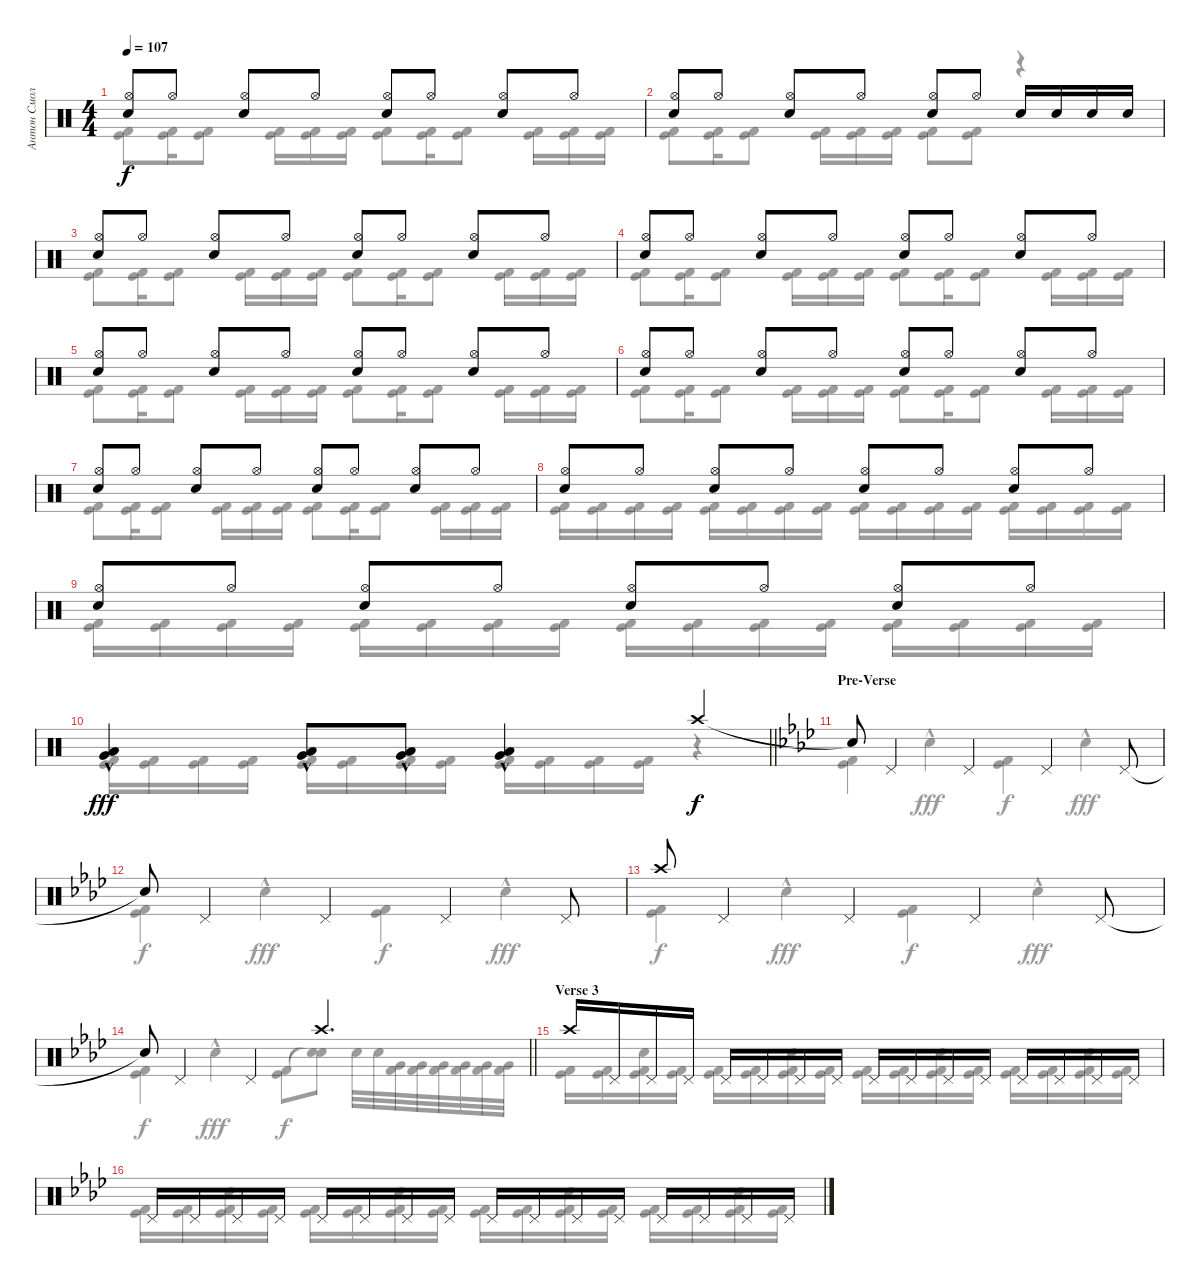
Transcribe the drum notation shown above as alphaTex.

\track ("Антон Смольянин" "Антон Смол") {instrument percussion}
\staff {score}
\articulation defaults
\voice
\ts (4 4)
\tempo 107
\clef neutral
\ks c
("Hi-Hat (open)" "Snare (hit) 2").8{dy f} "Hi-Hat (open)".8 ("Hi-Hat (open)" "Snare (hit) 2").8 "Hi-Hat (open)".8 ("Hi-Hat (open)" "Snare (hit) 2").8 "Hi-Hat (open)".8 ("Hi-Hat (open)" "Snare (hit) 2").8 "Hi-Hat (open)".8 |
("Hi-Hat (open)" "Snare (hit) 2").8 "Hi-Hat (open)".8 ("Hi-Hat (open)" "Snare (hit) 2").8 "Hi-Hat (open)".8 ("Hi-Hat (open)" "Snare (hit) 2").8 "Hi-Hat (open)".8 "Snare (hit) 2".16 "Snare (hit) 2".16 "Snare (hit) 2".16 "Snare (hit) 2".16 |
("Hi-Hat (open)" "Snare (hit) 2").8 "Hi-Hat (open)".8 ("Hi-Hat (open)" "Snare (hit) 2").8 "Hi-Hat (open)".8 ("Hi-Hat (open)" "Snare (hit) 2").8 "Hi-Hat (open)".8 ("Hi-Hat (open)" "Snare (hit) 2").8 "Hi-Hat (open)".8 |
("Hi-Hat (open)" "Snare (hit) 2").8 "Hi-Hat (open)".8 ("Hi-Hat (open)" "Snare (hit) 2").8 "Hi-Hat (open)".8 ("Hi-Hat (open)" "Snare (hit) 2").8 "Hi-Hat (open)".8 ("Hi-Hat (open)" "Snare (hit) 2").8 "Hi-Hat (open)".8 |
("Hi-Hat (open)" "Snare (hit) 2").8 "Hi-Hat (open)".8 ("Hi-Hat (open)" "Snare (hit) 2").8 "Hi-Hat (open)".8 ("Hi-Hat (open)" "Snare (hit) 2").8 "Hi-Hat (open)".8 ("Hi-Hat (open)" "Snare (hit) 2").8 "Hi-Hat (open)".8 |
("Hi-Hat (open)" "Snare (hit) 2").8 "Hi-Hat (open)".8 ("Hi-Hat (open)" "Snare (hit) 2").8 "Hi-Hat (open)".8 ("Hi-Hat (open)" "Snare (hit) 2").8 "Hi-Hat (open)".8 ("Hi-Hat (open)" "Snare (hit) 2").8 "Hi-Hat (open)".8 |
("Hi-Hat (open)" "Snare (hit) 2").8 "Hi-Hat (open)".8 ("Hi-Hat (open)" "Snare (hit) 2").8 "Hi-Hat (open)".8 ("Hi-Hat (open)" "Snare (hit) 2").8 "Hi-Hat (open)".8 ("Hi-Hat (open)" "Snare (hit) 2").8 "Hi-Hat (open)".8 |
("Hi-Hat (open)" "Snare (hit) 2").8 "Hi-Hat (open)".8 ("Hi-Hat (open)" "Snare (hit) 2").8 "Hi-Hat (open)".8 ("Hi-Hat (open)" "Snare (hit) 2").8 "Hi-Hat (open)".8 ("Hi-Hat (open)" "Snare (hit) 2").8 "Hi-Hat (open)".8 |
("Hi-Hat (open)" "Snare (hit) 2").8 "Hi-Hat (open)".8 ("Hi-Hat (open)" "Snare (hit) 2").8 "Hi-Hat (open)".8 ("Hi-Hat (open)" "Snare (hit) 2").8 "Hi-Hat (open)".8 ("Hi-Hat (open)" "Snare (hit) 2").8 "Hi-Hat (open)".8 |
\barLineRight lightlight
("Very Low Tom (hit)"{hac} "Low Tom (hit)"{hac}).4{dy fff} ("Very Low Tom (hit)"{hac} "Low Floor Tom (hit)"{hac}).8 ("Very Low Tom (hit)"{hac} "Low Floor Tom (hit)"{hac}).8 ("Low Tom (hit)"{hac} "Very Low Tom (hit)"{hac}).4 "Crash high (hit)".4{dy f} |
\section ("" "Pre-Verse")
\ks ab "Snare (hit)"{t}.8 "Pedal Hi-Hat (hit)".4 "Pedal Hi-Hat (hit)".4 "Pedal Hi-Hat (hit)".4 "Pedal Hi-Hat (hit)".8
|
"Snare (hit)"{t}.8 "Pedal Hi-Hat (hit)".4 "Pedal Hi-Hat (hit)".4 "Pedal Hi-Hat (hit)".4 "Pedal Hi-Hat (hit)".8 |
"Crash high (hit)".8 "Pedal Hi-Hat (hit)".4 "Pedal Hi-Hat (hit)".4 "Pedal Hi-Hat (hit)".4 "Pedal Hi-Hat (hit)".8 |
\barLineRight lightlight "Snare (hit)"{t}.8 "Pedal Hi-Hat (hit)".4 "Pedal Hi-Hat (hit)".4 "Crash high (hit)".4{d}
|
\section ("" "Verse 3")
"Crash high (hit)".16 "Pedal Hi-Hat (hit)".16 "Pedal Hi-Hat (hit)".16 "Pedal Hi-Hat (hit)".16 "Pedal Hi-Hat (hit)".16 "Pedal Hi-Hat (hit)".16 "Pedal Hi-Hat (hit)".16 "Pedal Hi-Hat (hit)".16 "Pedal Hi-Hat (hit)".16 "Pedal Hi-Hat (hit)".16 "Pedal Hi-Hat (hit)".16 "Pedal Hi-Hat (hit)".16 "Pedal Hi-Hat (hit)".16 "Pedal Hi-Hat (hit)".16 "Pedal Hi-Hat (hit)".16 "Pedal Hi-Hat (hit)".16 |
"Pedal Hi-Hat (hit)".16 "Pedal Hi-Hat (hit)".16 "Pedal Hi-Hat (hit)".16 "Pedal Hi-Hat (hit)".16 "Pedal Hi-Hat (hit)".16 "Pedal Hi-Hat (hit)".16 "Pedal Hi-Hat (hit)".16 "Pedal Hi-Hat (hit)".16 "Pedal Hi-Hat (hit)".16 "Pedal Hi-Hat (hit)".16 "Pedal Hi-Hat (hit)".16 "Pedal Hi-Hat (hit)".16 "Pedal Hi-Hat (hit)".16 "Pedal Hi-Hat (hit)".16 "Pedal Hi-Hat (hit)".16 "Pedal Hi-Hat (hit)".16
\voice
\clef neutral
\ottava regular
\simile none
\ks c
("Kick (hit)" "Kick (hit) 2").8{dy f} ("Kick (hit)" "Kick (hit) 2").16 ("Kick (hit)" "Kick (hit) 2").8 ("Kick (hit)" "Kick (hit) 2").16 ("Kick (hit)" "Kick (hit) 2").16 ("Kick (hit)" "Kick (hit) 2").16 ("Kick (hit)" "Kick (hit) 2").8 ("Kick (hit)" "Kick (hit) 2").16 ("Kick (hit)" "Kick (hit) 2").8 ("Kick (hit)" "Kick (hit) 2").16 ("Kick (hit)" "Kick (hit) 2").16 ("Kick (hit)" "Kick (hit) 2").16 |
("Kick (hit)" "Kick (hit) 2").8 ("Kick (hit)" "Kick (hit) 2").16 ("Kick (hit)" "Kick (hit) 2").8 ("Kick (hit)" "Kick (hit) 2").16 ("Kick (hit)" "Kick (hit) 2").16 ("Kick (hit)" "Kick (hit) 2").16 ("Kick (hit)" "Kick (hit) 2").8 ("Kick (hit)" "Kick (hit) 2").8 r.4 |
("Kick (hit)" "Kick (hit) 2").8 ("Kick (hit)" "Kick (hit) 2").16 ("Kick (hit)" "Kick (hit) 2").8 ("Kick (hit)" "Kick (hit) 2").16 ("Kick (hit)" "Kick (hit) 2").16 ("Kick (hit)" "Kick (hit) 2").16 ("Kick (hit)" "Kick (hit) 2").8 ("Kick (hit)" "Kick (hit) 2").16 ("Kick (hit)" "Kick (hit) 2").8 ("Kick (hit)" "Kick (hit) 2").16 ("Kick (hit)" "Kick (hit) 2").16 ("Kick (hit)" "Kick (hit) 2").16 |
("Kick (hit)" "Kick (hit) 2").8 ("Kick (hit)" "Kick (hit) 2").16 ("Kick (hit)" "Kick (hit) 2").8 ("Kick (hit)" "Kick (hit) 2").16 ("Kick (hit)" "Kick (hit) 2").16 ("Kick (hit)" "Kick (hit) 2").16 ("Kick (hit)" "Kick (hit) 2").8 ("Kick (hit)" "Kick (hit) 2").16 ("Kick (hit)" "Kick (hit) 2").8 ("Kick (hit)" "Kick (hit) 2").16 ("Kick (hit)" "Kick (hit) 2").16 ("Kick (hit)" "Kick (hit) 2").16 |
("Kick (hit)" "Kick (hit) 2").8 ("Kick (hit)" "Kick (hit) 2").16 ("Kick (hit)" "Kick (hit) 2").8 ("Kick (hit)" "Kick (hit) 2").16 ("Kick (hit)" "Kick (hit) 2").16 ("Kick (hit)" "Kick (hit) 2").16 ("Kick (hit)" "Kick (hit) 2").8 ("Kick (hit)" "Kick (hit) 2").16 ("Kick (hit)" "Kick (hit) 2").8 ("Kick (hit)" "Kick (hit) 2").16 ("Kick (hit)" "Kick (hit) 2").16 ("Kick (hit)" "Kick (hit) 2").16 |
("Kick (hit)" "Kick (hit) 2").8 ("Kick (hit)" "Kick (hit) 2").16 ("Kick (hit)" "Kick (hit) 2").8 ("Kick (hit)" "Kick (hit) 2").16 ("Kick (hit)" "Kick (hit) 2").16 ("Kick (hit)" "Kick (hit) 2").16 ("Kick (hit)" "Kick (hit) 2").8 ("Kick (hit)" "Kick (hit) 2").16 ("Kick (hit)" "Kick (hit) 2").8 ("Kick (hit)" "Kick (hit) 2").16 ("Kick (hit)" "Kick (hit) 2").16 ("Kick (hit)" "Kick (hit) 2").16 |
("Kick (hit)" "Kick (hit) 2").8 ("Kick (hit)" "Kick (hit) 2").16 ("Kick (hit)" "Kick (hit) 2").8 ("Kick (hit)" "Kick (hit) 2").16 ("Kick (hit)" "Kick (hit) 2").16 ("Kick (hit)" "Kick (hit) 2").16 ("Kick (hit)" "Kick (hit) 2").8 ("Kick (hit)" "Kick (hit) 2").16 ("Kick (hit)" "Kick (hit) 2").8 ("Kick (hit)" "Kick (hit) 2").16 ("Kick (hit)" "Kick (hit) 2").16 ("Kick (hit)" "Kick (hit) 2").16 |
("Kick (hit)" "Kick (hit) 2").16 ("Kick (hit)" "Kick (hit) 2").16 ("Kick (hit)" "Kick (hit) 2").16 ("Kick (hit)" "Kick (hit) 2").16 ("Kick (hit)" "Kick (hit) 2").16 ("Kick (hit)" "Kick (hit) 2").16 ("Kick (hit)" "Kick (hit) 2").16 ("Kick (hit)" "Kick (hit) 2").16 ("Kick (hit)" "Kick (hit) 2").16 ("Kick (hit)" "Kick (hit) 2").16 ("Kick (hit)" "Kick (hit) 2").16 ("Kick (hit)" "Kick (hit) 2").16 ("Kick (hit)" "Kick (hit) 2").16 ("Kick (hit)" "Kick (hit) 2").16 ("Kick (hit)" "Kick (hit) 2").16 ("Kick (hit)" "Kick (hit) 2").16 |
("Kick (hit)" "Kick (hit) 2").16 ("Kick (hit)" "Kick (hit) 2").16 ("Kick (hit)" "Kick (hit) 2").16 ("Kick (hit)" "Kick (hit) 2").16 ("Kick (hit)" "Kick (hit) 2").16 ("Kick (hit)" "Kick (hit) 2").16 ("Kick (hit)" "Kick (hit) 2").16 ("Kick (hit)" "Kick (hit) 2").16 ("Kick (hit)" "Kick (hit) 2").16 ("Kick (hit)" "Kick (hit) 2").16 ("Kick (hit)" "Kick (hit) 2").16 ("Kick (hit)" "Kick (hit) 2").16 ("Kick (hit)" "Kick (hit) 2").16 ("Kick (hit)" "Kick (hit) 2").16 ("Kick (hit)" "Kick (hit) 2").16 ("Kick (hit)" "Kick (hit) 2").16 |
\barLineRight lightlight
("Kick (hit)" "Kick (hit) 2").16 ("Kick (hit)" "Kick (hit) 2").16 ("Kick (hit)" "Kick (hit) 2").16 ("Kick (hit)" "Kick (hit) 2").16 ("Kick (hit)" "Kick (hit) 2").16 ("Kick (hit)" "Kick (hit) 2").16 ("Kick (hit)" "Kick (hit) 2").16 ("Kick (hit)" "Kick (hit) 2").16 ("Kick (hit)" "Kick (hit) 2").16 ("Kick (hit)" "Kick (hit) 2").16 ("Kick (hit)" "Kick (hit) 2").16 ("Kick (hit)" "Kick (hit) 2").16 r.4 |
\ks ab
("Kick (hit)" "Kick (hit) 2").4 "Snare (hit) 2"{hac}.4{dy fff} ("Kick (hit)" "Kick (hit) 2").4{dy f} "Snare (hit) 2"{hac}.4{dy fff} |
("Kick (hit)" "Kick (hit) 2").4{dy f} "Snare (hit) 2"{hac}.4{dy fff} ("Kick (hit)" "Kick (hit) 2").4{dy f} "Snare (hit) 2"{hac}.4{dy fff} |
("Kick (hit)" "Kick (hit) 2").4{dy f} "Snare (hit) 2"{hac}.4{dy fff} ("Kick (hit)" "Kick (hit) 2").4{dy f} "Snare (hit) 2"{hac}.4{dy fff} |
\barLineRight lightlight
("Kick (hit)" "Kick (hit) 2").4{dy f} "Snare (hit) 2"{hac}.4{dy fff} ("Kick (hit)" "Kick (hit) 2").8{dy f} ("Snare (hit)"{t} "Snare (hit)"{t}).8 "Snare (hit) 2".32 "Snare (hit) 2".32 ("Kick (hit) 2" "Very Low Tom (hit)").32 ("Kick (hit) 2" "Very Low Tom (hit)").32 ("Kick (hit) 2" "Very Low Tom (hit)").32 ("Kick (hit) 2" "Very Low Tom (hit)").32 ("Kick (hit) 2" "Very Low Tom (hit)").32 ("Kick (hit) 2" "Very Low Tom (hit)").32 |
("Kick (hit)" "Kick (hit) 2").16 ("Kick (hit)" "Kick (hit) 2").16 ("Kick (hit)" "Kick (hit) 2" "Snare (hit) 2").16 ("Kick (hit)" "Kick (hit) 2").16 ("Kick (hit)" "Kick (hit) 2").16 ("Kick (hit)" "Kick (hit) 2").16 ("Kick (hit)" "Kick (hit) 2" "Snare (hit) 2").16 ("Kick (hit)" "Kick (hit) 2").16 ("Kick (hit)" "Kick (hit) 2").16 ("Kick (hit)" "Kick (hit) 2").16 ("Kick (hit)" "Kick (hit) 2" "Snare (hit) 2").16 ("Kick (hit)" "Kick (hit) 2").16 ("Kick (hit)" "Kick (hit) 2").16 ("Kick (hit)" "Kick (hit) 2").16 ("Kick (hit)" "Kick (hit) 2" "Snare (hit) 2").16 ("Kick (hit)" "Kick (hit) 2").16 |
("Kick (hit)" "Kick (hit) 2").16 ("Kick (hit)" "Kick (hit) 2").16 ("Kick (hit)" "Kick (hit) 2" "Snare (hit) 2").16 ("Kick (hit)" "Kick (hit) 2").16 ("Kick (hit)" "Kick (hit) 2").16 ("Kick (hit)" "Kick (hit) 2").16 ("Kick (hit)" "Kick (hit) 2" "Snare (hit) 2").16 ("Kick (hit)" "Kick (hit) 2").16 ("Kick (hit)" "Kick (hit) 2").16 ("Kick (hit)" "Kick (hit) 2").16 ("Kick (hit)" "Kick (hit) 2" "Snare (hit) 2").16 ("Kick (hit)" "Kick (hit) 2").16 ("Kick (hit)" "Kick (hit) 2").16 ("Kick (hit)" "Kick (hit) 2").16 ("Kick (hit)" "Kick (hit) 2" "Snare (hit) 2").16 ("Kick (hit)" "Kick (hit) 2").16
